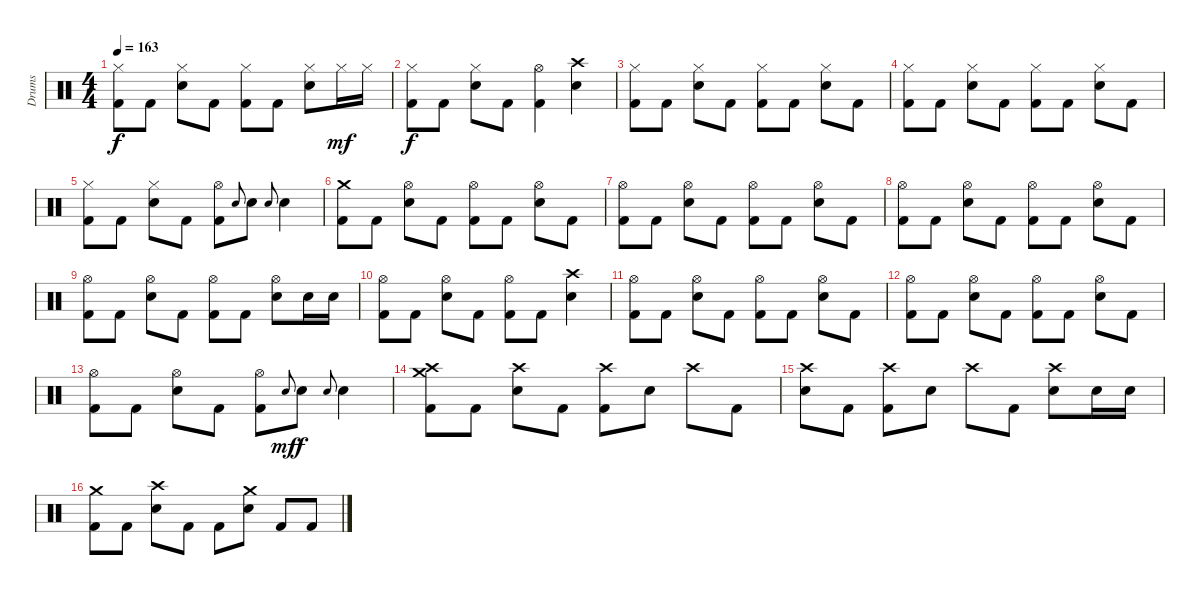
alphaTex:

\track ("Drums" "Drums") {instrument percussion}
\staff {score}
\articulation defaults
\ts (4 4)
\tempo 163
\clef neutral
\ks c
("Hi-Hat (closed)" "Kick (hit) 2").8{dy f} "Kick (hit) 2".8 ("Hi-Hat (closed)" "Electric Snare (hit)").8 "Kick (hit) 2".8 ("Hi-Hat (closed)" "Kick (hit) 2").8 "Kick (hit) 2".8 ("Hi-Hat (closed)" "Electric Snare (hit)").8 "Hi-Hat (closed)".16{dy mf} "Hi-Hat (closed)".16 |
("Hi-Hat (closed)" "Kick (hit) 2").8{dy f} "Kick (hit) 2".8 ("Hi-Hat (closed)" "Electric Snare (hit)").8 "Kick (hit) 2".8 ("Hi-Hat (open)" "Kick (hit) 2").4 ("Crash high (hit)" "Electric Snare (hit)").4 |
("Hi-Hat (closed)" "Kick (hit) 2").8 "Kick (hit) 2".8 ("Hi-Hat (closed)" "Electric Snare (hit)").8 "Kick (hit) 2".8 ("Hi-Hat (closed)" "Kick (hit) 2").8 "Kick (hit) 2".8 ("Hi-Hat (closed)" "Electric Snare (hit)").8 "Kick (hit) 2".8 |
("Hi-Hat (closed)" "Kick (hit) 2").8 "Kick (hit) 2".8 ("Hi-Hat (closed)" "Electric Snare (hit)").8 "Kick (hit) 2".8 ("Hi-Hat (closed)" "Kick (hit) 2").8 "Kick (hit) 2".8 ("Hi-Hat (closed)" "Electric Snare (hit)").8 "Kick (hit) 2".8 |
("Hi-Hat (closed)" "Kick (hit) 2").8 "Kick (hit) 2".8 ("Hi-Hat (closed)" "Electric Snare (hit)").8 "Kick (hit) 2".8 ("Hi-Hat (open)" "Kick (hit) 2").8 "Electric Snare (hit)".8{gr onbeat} "Electric Snare (hit)".8 "Electric Snare (hit)".8{gr onbeat} "Electric Snare (hit)".4 |
("Crash medium (hit)" "Kick (hit) 2").8 "Kick (hit) 2".8 ("Hi-Hat (open)" "Electric Snare (hit)").8 "Kick (hit) 2".8 ("Hi-Hat (open)" "Kick (hit) 2").8 "Kick (hit) 2".8 ("Hi-Hat (open)" "Electric Snare (hit)").8 "Kick (hit) 2".8 |
("Hi-Hat (open)" "Kick (hit) 2").8 "Kick (hit) 2".8 ("Hi-Hat (open)" "Electric Snare (hit)").8 "Kick (hit) 2".8 ("Hi-Hat (open)" "Kick (hit) 2").8 "Kick (hit) 2".8 ("Hi-Hat (open)" "Electric Snare (hit)").8 "Kick (hit) 2".8 |
("Hi-Hat (open)" "Kick (hit) 2").8 "Kick (hit) 2".8 ("Hi-Hat (open)" "Electric Snare (hit)").8 "Kick (hit) 2".8 ("Hi-Hat (open)" "Kick (hit) 2").8 "Kick (hit) 2".8 ("Hi-Hat (open)" "Electric Snare (hit)").8 "Kick (hit) 2".8 |
("Hi-Hat (open)" "Kick (hit) 2").8 "Kick (hit) 2".8 ("Hi-Hat (open)" "Electric Snare (hit)").8 "Kick (hit) 2".8 ("Hi-Hat (open)" "Kick (hit) 2").8 "Kick (hit) 2".8 ("Hi-Hat (open)" "Electric Snare (hit)").8 "Electric Snare (hit)".16 "Electric Snare (hit)".16 |
("Hi-Hat (open)" "Kick (hit) 2").8 "Kick (hit) 2".8 ("Hi-Hat (open)" "Electric Snare (hit)").8 "Kick (hit) 2".8 ("Hi-Hat (open)" "Kick (hit) 2").8 "Kick (hit) 2".8 ("Crash high (hit)" "Electric Snare (hit)").4 |
("Hi-Hat (open)" "Kick (hit) 2").8 "Kick (hit) 2".8 ("Hi-Hat (open)" "Electric Snare (hit)").8 "Kick (hit) 2".8 ("Hi-Hat (open)" "Kick (hit) 2").8 "Kick (hit) 2".8 ("Hi-Hat (open)" "Electric Snare (hit)").8 "Kick (hit) 2".8 |
("Hi-Hat (open)" "Kick (hit) 2").8 "Kick (hit) 2".8 ("Hi-Hat (open)" "Electric Snare (hit)").8 "Kick (hit) 2".8 ("Hi-Hat (open)" "Kick (hit) 2").8 "Kick (hit) 2".8 ("Hi-Hat (open)" "Electric Snare (hit)").8 "Kick (hit) 2".8 |
("Hi-Hat (open)" "Kick (hit) 2").8 "Kick (hit) 2".8 ("Hi-Hat (open)" "Electric Snare (hit)").8 "Kick (hit) 2".8 ("Hi-Hat (open)" "Kick (hit) 2").8 "Electric Snare (hit)".8{gr onbeat dy mf} "Electric Snare (hit)".8{dy f} "Electric Snare (hit)".8{gr onbeat} "Electric Snare (hit)".4 |
("Crash high (hit)" "Crash medium (hit)" "Kick (hit) 2").8 "Kick (hit) 2".8 ("Crash high (hit)" "Electric Snare (hit)").8 "Kick (hit) 2".8 ("Crash high (hit)" "Kick (hit) 2").8 "Electric Snare (hit)".8 "Crash high (hit)".8 "Kick (hit) 2".8 |
("Crash high (hit)" "Electric Snare (hit)").8 "Kick (hit) 2".8 ("Crash high (hit)" "Kick (hit) 2").8 "Electric Snare (hit)".8 "Crash high (hit)".8 "Kick (hit) 2".8 ("Crash high (hit)" "Electric Snare (hit)").8 "Electric Snare (hit)".16 "Electric Snare (hit)".16 |
("Crash medium (hit)" "Kick (hit) 2").8 "Kick (hit) 2".8 ("Crash high (hit)" "Electric Snare (hit)").8 "Kick (hit) 2".8 "Kick (hit) 2".8 ("Crash medium (hit)" "Electric Snare (hit)").8 "Kick (hit) 2".8 "Kick (hit) 2".8
